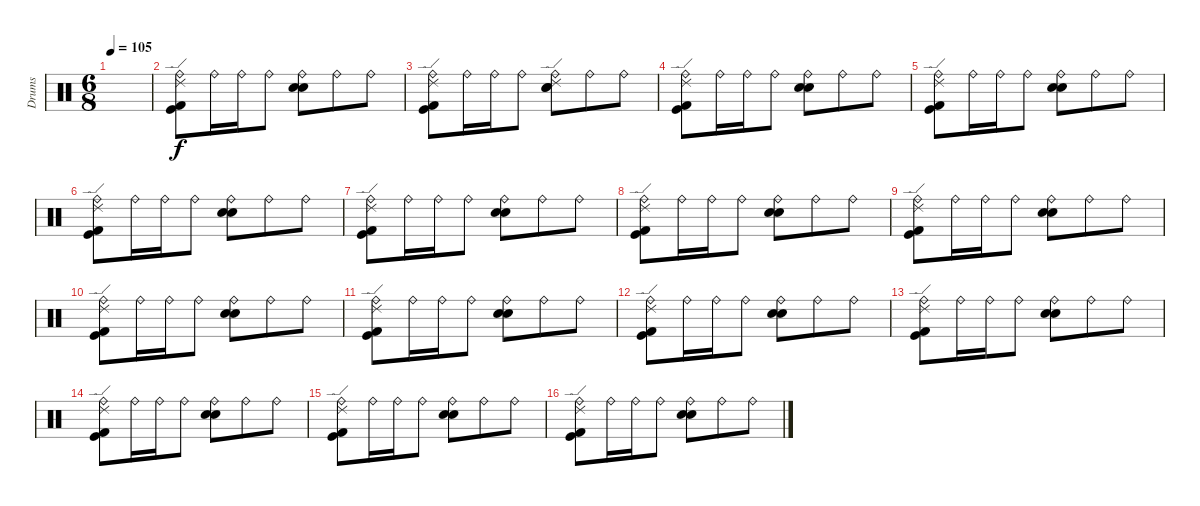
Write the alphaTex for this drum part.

\track ("Drums" "Drums") {instrument percussion}
\staff {score}
\articulation defaults
\ts (6 8)
\tempo 105
\clef neutral
\ks c
|
("Ride (bell)" "Ride (edge) 2" "Kick (hit) 2" "Kick (hit)").8 "Ride (bell)".16 "Ride (bell)".16 "Ride (bell)".8 ("Ride (bell)" "Snare (hit) 2" "Electric Snare (hit)").8 "Ride (bell)".8 "Ride (bell)".8 |
("Ride (bell)" "Ride (edge) 2" "Kick (hit) 2" "Kick (hit)").8 "Ride (bell)".16 "Ride (bell)".16 "Ride (bell)".8 ("Ride (bell)" "Ride (edge) 2" "Snare (hit) 2" "Electric Snare (hit)").8 "Ride (bell)".8 "Ride (bell)".8 |
("Ride (bell)" "Ride (edge) 2" "Kick (hit) 2" "Kick (hit)").8 "Ride (bell)".16 "Ride (bell)".16 "Ride (bell)".8 ("Ride (bell)" "Snare (hit) 2" "Electric Snare (hit)").8 "Ride (bell)".8 "Ride (bell)".8 |
("Ride (bell)" "Ride (edge) 2" "Kick (hit) 2" "Kick (hit)").8 "Ride (bell)".16 "Ride (bell)".16 "Ride (bell)".8 ("Ride (bell)" "Snare (hit) 2" "Electric Snare (hit)").8 "Ride (bell)".8 "Ride (bell)".8 |
("Ride (bell)" "Ride (edge) 2" "Kick (hit) 2" "Kick (hit)").8 "Ride (bell)".16 "Ride (bell)".16 "Ride (bell)".8 ("Ride (bell)" "Snare (hit) 2" "Electric Snare (hit)").8 "Ride (bell)".8 "Ride (bell)".8 |
("Ride (bell)" "Ride (edge) 2" "Kick (hit) 2" "Kick (hit)").8 "Ride (bell)".16 "Ride (bell)".16 "Ride (bell)".8 ("Ride (bell)" "Snare (hit) 2" "Electric Snare (hit)").8 "Ride (bell)".8 "Ride (bell)".8 |
("Ride (bell)" "Ride (edge) 2" "Kick (hit) 2" "Kick (hit)").8 "Ride (bell)".16 "Ride (bell)".16 "Ride (bell)".8 ("Ride (bell)" "Snare (hit) 2" "Electric Snare (hit)").8 "Ride (bell)".8 "Ride (bell)".8 |
("Ride (bell)" "Ride (edge) 2" "Kick (hit) 2" "Kick (hit)").8 "Ride (bell)".16 "Ride (bell)".16 "Ride (bell)".8 ("Ride (bell)" "Snare (hit) 2" "Electric Snare (hit)").8 "Ride (bell)".8 "Ride (bell)".8 |
("Ride (bell)" "Ride (edge) 2" "Kick (hit) 2" "Kick (hit)").8 "Ride (bell)".16 "Ride (bell)".16 "Ride (bell)".8 ("Ride (bell)" "Snare (hit) 2" "Electric Snare (hit)").8 "Ride (bell)".8 "Ride (bell)".8 |
("Ride (bell)" "Ride (edge) 2" "Kick (hit) 2" "Kick (hit)").8 "Ride (bell)".16 "Ride (bell)".16 "Ride (bell)".8 ("Ride (bell)" "Snare (hit) 2" "Electric Snare (hit)").8 "Ride (bell)".8 "Ride (bell)".8 |
("Ride (bell)" "Ride (edge) 2" "Kick (hit) 2" "Kick (hit)").8 "Ride (bell)".16 "Ride (bell)".16 "Ride (bell)".8 ("Ride (bell)" "Snare (hit) 2" "Electric Snare (hit)").8 "Ride (bell)".8 "Ride (bell)".8 |
("Ride (bell)" "Ride (edge) 2" "Kick (hit) 2" "Kick (hit)").8 "Ride (bell)".16 "Ride (bell)".16 "Ride (bell)".8 ("Ride (bell)" "Snare (hit) 2" "Electric Snare (hit)").8 "Ride (bell)".8 "Ride (bell)".8 |
("Ride (bell)" "Ride (edge) 2" "Kick (hit) 2" "Kick (hit)").8 "Ride (bell)".16 "Ride (bell)".16 "Ride (bell)".8 ("Ride (bell)" "Snare (hit) 2" "Electric Snare (hit)").8 "Ride (bell)".8 "Ride (bell)".8 |
("Ride (bell)" "Ride (edge) 2" "Kick (hit) 2" "Kick (hit)").8 "Ride (bell)".16 "Ride (bell)".16 "Ride (bell)".8 ("Ride (bell)" "Snare (hit) 2" "Electric Snare (hit)").8 "Ride (bell)".8 "Ride (bell)".8 |
("Ride (bell)" "Ride (edge) 2" "Kick (hit) 2" "Kick (hit)").8 "Ride (bell)".16 "Ride (bell)".16 "Ride (bell)".8 ("Ride (bell)" "Snare (hit) 2" "Electric Snare (hit)").8 "Ride (bell)".8 "Ride (bell)".8
